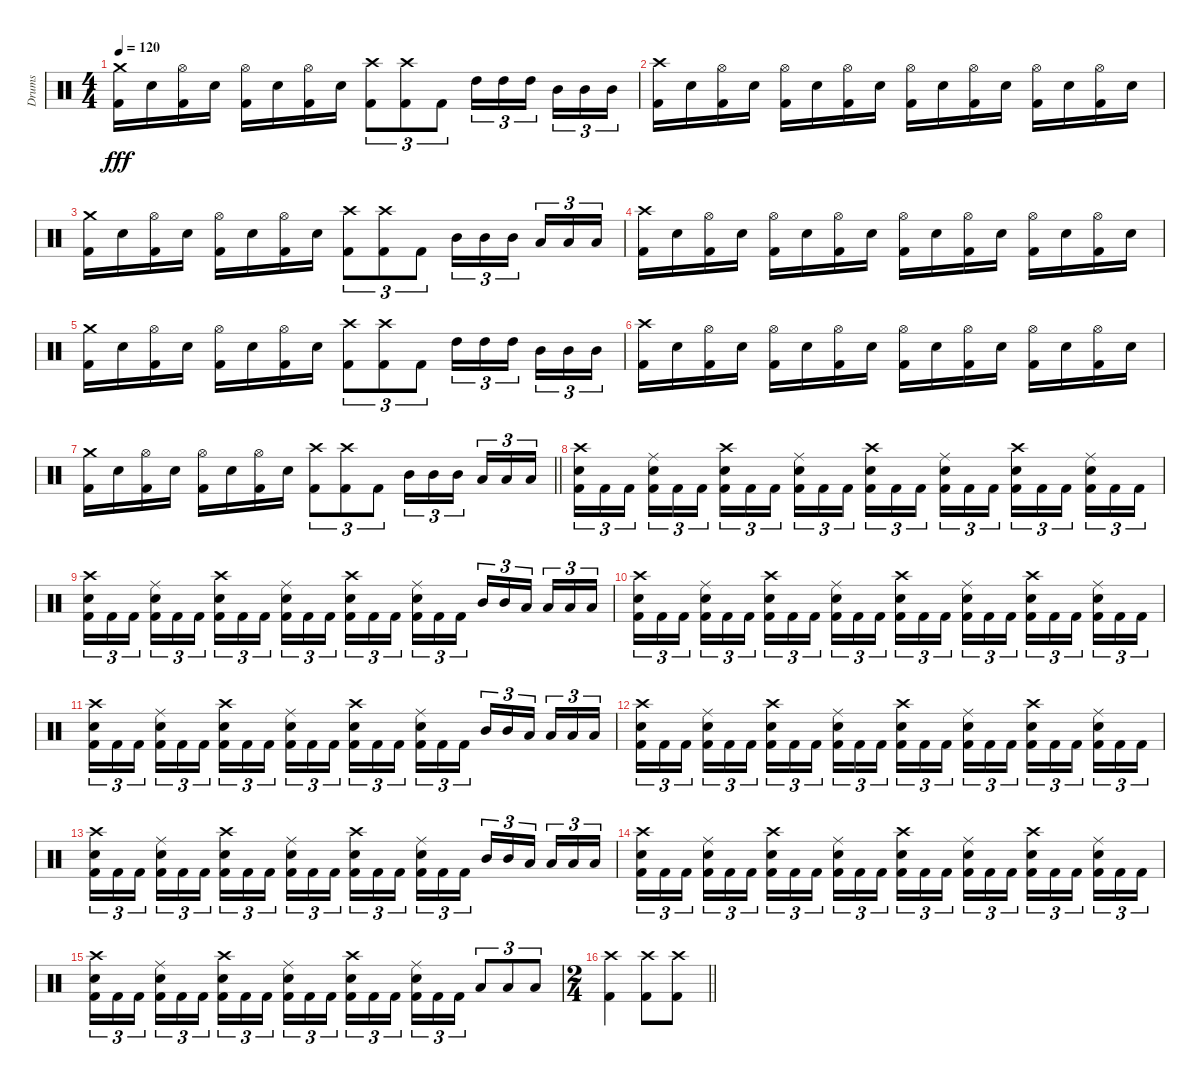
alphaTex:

\track ("Drums" "Drums") {instrument percussion}
\staff {score}
\articulation defaults
\ts (4 4)
\tempo 120
\clef neutral
\ks c
("Crash medium (hit)" "Kick (hit) 2").16{dy fff} "Snare (hit) 2".16 ("Hi-Hat (open)" "Kick (hit) 2").16 "Snare (hit) 2".16 ("Hi-Hat (open)" "Kick (hit) 2").16 "Snare (hit) 2".16 ("Hi-Hat (open)" "Kick (hit) 2").16 "Snare (hit) 2".16 ("Crash high (hit)" "Kick (hit) 2").8{tu (3 2)} ("Crash high (hit)" "Kick (hit) 2").8{tu (3 2)} "Kick (hit) 2".8{tu (3 2)} "High Tom (hit)".16{tu (3 2)} "High Tom (hit)".16{tu (3 2)} "High Tom (hit)".16{tu (3 2) beam splitsecondary} "Mid Tom (hit)".16{tu (3 2)} "Mid Tom (hit)".16{tu (3 2)} "Mid Tom (hit)".16{tu (3 2)} |
("Crash high (hit)" "Kick (hit) 2").16 "Snare (hit) 2".16 ("Hi-Hat (open)" "Kick (hit) 2").16 "Snare (hit) 2".16 ("Hi-Hat (open)" "Kick (hit) 2").16 "Snare (hit) 2".16 ("Hi-Hat (open)" "Kick (hit) 2").16 "Snare (hit) 2".16 ("Hi-Hat (open)" "Kick (hit) 2").16 "Snare (hit) 2".16 ("Hi-Hat (open)" "Kick (hit) 2").16 "Snare (hit) 2".16 ("Hi-Hat (open)" "Kick (hit) 2").16 "Snare (hit) 2".16 ("Hi-Hat (open)" "Kick (hit) 2").16 "Snare (hit) 2".16 |
("Crash medium (hit)" "Kick (hit) 2").16 "Snare (hit) 2".16 ("Hi-Hat (open)" "Kick (hit) 2").16 "Snare (hit) 2".16 ("Hi-Hat (open)" "Kick (hit) 2").16 "Snare (hit) 2".16 ("Hi-Hat (open)" "Kick (hit) 2").16 "Snare (hit) 2".16 ("Crash high (hit)" "Kick (hit) 2").8{tu (3 2)} ("Crash high (hit)" "Kick (hit) 2").8{tu (3 2)} "Kick (hit) 2".8{tu (3 2)} "Mid Tom (hit)".16{tu (3 2)} "Mid Tom (hit)".16{tu (3 2)} "Mid Tom (hit)".16{tu (3 2) beam splitsecondary} "Low Tom (hit)".16{tu (3 2)} "Low Tom (hit)".16{tu (3 2)} "Low Tom (hit)".16{tu (3 2)} |
("Crash high (hit)" "Kick (hit) 2").16 "Snare (hit) 2".16 ("Hi-Hat (open)" "Kick (hit) 2").16 "Snare (hit) 2".16 ("Hi-Hat (open)" "Kick (hit) 2").16 "Snare (hit) 2".16 ("Hi-Hat (open)" "Kick (hit) 2").16 "Snare (hit) 2".16 ("Hi-Hat (open)" "Kick (hit) 2").16 "Snare (hit) 2".16 ("Hi-Hat (open)" "Kick (hit) 2").16 "Snare (hit) 2".16 ("Hi-Hat (open)" "Kick (hit) 2").16 "Snare (hit) 2".16 ("Hi-Hat (open)" "Kick (hit) 2").16 "Snare (hit) 2".16 |
("Crash medium (hit)" "Kick (hit) 2").16 "Snare (hit) 2".16 ("Hi-Hat (open)" "Kick (hit) 2").16 "Snare (hit) 2".16 ("Hi-Hat (open)" "Kick (hit) 2").16 "Snare (hit) 2".16 ("Hi-Hat (open)" "Kick (hit) 2").16 "Snare (hit) 2".16 ("Crash high (hit)" "Kick (hit) 2").8{tu (3 2)} ("Crash high (hit)" "Kick (hit) 2").8{tu (3 2)} "Kick (hit) 2".8{tu (3 2)} "High Tom (hit)".16{tu (3 2)} "High Tom (hit)".16{tu (3 2)} "High Tom (hit)".16{tu (3 2) beam splitsecondary} "Mid Tom (hit)".16{tu (3 2)} "Mid Tom (hit)".16{tu (3 2)} "Mid Tom (hit)".16{tu (3 2)} |
("Crash high (hit)" "Kick (hit) 2").16 "Snare (hit) 2".16 ("Hi-Hat (open)" "Kick (hit) 2").16 "Snare (hit) 2".16 ("Hi-Hat (open)" "Kick (hit) 2").16 "Snare (hit) 2".16 ("Hi-Hat (open)" "Kick (hit) 2").16 "Snare (hit) 2".16 ("Hi-Hat (open)" "Kick (hit) 2").16 "Snare (hit) 2".16 ("Hi-Hat (open)" "Kick (hit) 2").16 "Snare (hit) 2".16 ("Hi-Hat (open)" "Kick (hit) 2").16 "Snare (hit) 2".16 ("Hi-Hat (open)" "Kick (hit) 2").16 "Snare (hit) 2".16 |
\barLineRight lightlight
("Crash medium (hit)" "Kick (hit) 2").16 "Snare (hit) 2".16 ("Hi-Hat (open)" "Kick (hit) 2").16 "Snare (hit) 2".16 ("Hi-Hat (open)" "Kick (hit) 2").16 "Snare (hit) 2".16 ("Hi-Hat (open)" "Kick (hit) 2").16 "Snare (hit) 2".16 ("Crash high (hit)" "Kick (hit) 2").8{tu (3 2)} ("Crash high (hit)" "Kick (hit) 2").8{tu (3 2)} "Kick (hit) 2".8{tu (3 2)} "Mid Tom (hit)".16{tu (3 2)} "Mid Tom (hit)".16{tu (3 2)} "Mid Tom (hit)".16{tu (3 2) beam splitsecondary} "Low Tom (hit)".16{tu (3 2)} "Low Tom (hit)".16{tu (3 2)} "Low Tom (hit)".16{tu (3 2)} |
("Crash high (hit)" "Snare (hit) 2" "Kick (hit) 2").16{tu (3 2)} "Kick (hit) 2".16{tu (3 2)} "Kick (hit) 2".16{tu (3 2) beam splitsecondary} ("Ride (middle)" "Snare (hit) 2" "Kick (hit) 2").16{tu (3 2)} "Kick (hit) 2".16{tu (3 2)} "Kick (hit) 2".16{tu (3 2)} ("Crash high (hit)" "Snare (hit) 2" "Kick (hit) 2").16{tu (3 2)} "Kick (hit) 2".16{tu (3 2)} "Kick (hit) 2".16{tu (3 2) beam splitsecondary} ("Ride (middle)" "Snare (hit) 2" "Kick (hit) 2").16{tu (3 2)} "Kick (hit) 2".16{tu (3 2)} "Kick (hit) 2".16{tu (3 2)} ("Crash high (hit)" "Snare (hit) 2" "Kick (hit) 2").16{tu (3 2)} "Kick (hit) 2".16{tu (3 2)} "Kick (hit) 2".16{tu (3 2) beam splitsecondary} ("Ride (middle)" "Snare (hit) 2" "Kick (hit) 2").16{tu (3 2)} "Kick (hit) 2".16{tu (3 2)} "Kick (hit) 2".16{tu (3 2)} ("Crash high (hit)" "Snare (hit) 2" "Kick (hit) 2").16{tu (3 2)} "Kick (hit) 2".16{tu (3 2)} "Kick (hit) 2".16{tu (3 2) beam splitsecondary} ("Ride (middle)" "Snare (hit) 2" "Kick (hit) 2").16{tu (3 2)} "Kick (hit) 2".16{tu (3 2)} "Kick (hit) 2".16{tu (3 2)} |
("Crash high (hit)" "Snare (hit) 2" "Kick (hit) 2").16{tu (3 2)} "Kick (hit) 2".16{tu (3 2)} "Kick (hit) 2".16{tu (3 2) beam splitsecondary} ("Ride (middle)" "Snare (hit) 2" "Kick (hit) 2").16{tu (3 2)} "Kick (hit) 2".16{tu (3 2)} "Kick (hit) 2".16{tu (3 2)} ("Crash high (hit)" "Snare (hit) 2" "Kick (hit) 2").16{tu (3 2)} "Kick (hit) 2".16{tu (3 2)} "Kick (hit) 2".16{tu (3 2) beam splitsecondary} ("Ride (middle)" "Snare (hit) 2" "Kick (hit) 2").16{tu (3 2)} "Kick (hit) 2".16{tu (3 2)} "Kick (hit) 2".16{tu (3 2)} ("Crash high (hit)" "Snare (hit) 2" "Kick (hit) 2").16{tu (3 2)} "Kick (hit) 2".16{tu (3 2)} "Kick (hit) 2".16{tu (3 2) beam splitsecondary} ("Ride (middle)" "Snare (hit) 2" "Kick (hit) 2").16{tu (3 2)} "Kick (hit) 2".16{tu (3 2)} "Kick (hit) 2".16{tu (3 2)} "Mid Tom (hit)".16{tu (3 2)} "Mid Tom (hit)".16{tu (3 2)} "Low Tom (hit)".16{tu (3 2) beam splitsecondary} "Low Tom (hit)".16{tu (3 2)} "Low Tom (hit)".16{tu (3 2)} "Low Tom (hit)".16{tu (3 2)} |
("Crash high (hit)" "Snare (hit) 2" "Kick (hit) 2").16{tu (3 2)} "Kick (hit) 2".16{tu (3 2)} "Kick (hit) 2".16{tu (3 2) beam splitsecondary} ("Ride (middle)" "Snare (hit) 2" "Kick (hit) 2").16{tu (3 2)} "Kick (hit) 2".16{tu (3 2)} "Kick (hit) 2".16{tu (3 2)} ("Crash high (hit)" "Snare (hit) 2" "Kick (hit) 2").16{tu (3 2)} "Kick (hit) 2".16{tu (3 2)} "Kick (hit) 2".16{tu (3 2) beam splitsecondary} ("Ride (middle)" "Snare (hit) 2" "Kick (hit) 2").16{tu (3 2)} "Kick (hit) 2".16{tu (3 2)} "Kick (hit) 2".16{tu (3 2)} ("Crash high (hit)" "Snare (hit) 2" "Kick (hit) 2").16{tu (3 2)} "Kick (hit) 2".16{tu (3 2)} "Kick (hit) 2".16{tu (3 2) beam splitsecondary} ("Ride (middle)" "Snare (hit) 2" "Kick (hit) 2").16{tu (3 2)} "Kick (hit) 2".16{tu (3 2)} "Kick (hit) 2".16{tu (3 2)} ("Crash high (hit)" "Snare (hit) 2" "Kick (hit) 2").16{tu (3 2)} "Kick (hit) 2".16{tu (3 2)} "Kick (hit) 2".16{tu (3 2) beam splitsecondary} ("Ride (middle)" "Snare (hit) 2" "Kick (hit) 2").16{tu (3 2)} "Kick (hit) 2".16{tu (3 2)} "Kick (hit) 2".16{tu (3 2)} |
("Crash high (hit)" "Snare (hit) 2" "Kick (hit) 2").16{tu (3 2)} "Kick (hit) 2".16{tu (3 2)} "Kick (hit) 2".16{tu (3 2) beam splitsecondary} ("Ride (middle)" "Snare (hit) 2" "Kick (hit) 2").16{tu (3 2)} "Kick (hit) 2".16{tu (3 2)} "Kick (hit) 2".16{tu (3 2)} ("Crash high (hit)" "Snare (hit) 2" "Kick (hit) 2").16{tu (3 2)} "Kick (hit) 2".16{tu (3 2)} "Kick (hit) 2".16{tu (3 2) beam splitsecondary} ("Ride (middle)" "Snare (hit) 2" "Kick (hit) 2").16{tu (3 2)} "Kick (hit) 2".16{tu (3 2)} "Kick (hit) 2".16{tu (3 2)} ("Crash high (hit)" "Snare (hit) 2" "Kick (hit) 2").16{tu (3 2)} "Kick (hit) 2".16{tu (3 2)} "Kick (hit) 2".16{tu (3 2) beam splitsecondary} ("Ride (middle)" "Snare (hit) 2" "Kick (hit) 2").16{tu (3 2)} "Kick (hit) 2".16{tu (3 2)} "Kick (hit) 2".16{tu (3 2)} "Mid Tom (hit)".16{tu (3 2)} "Mid Tom (hit)".16{tu (3 2)} "Low Tom (hit)".16{tu (3 2) beam splitsecondary} "Low Tom (hit)".16{tu (3 2)} "Low Tom (hit)".16{tu (3 2)} "Low Tom (hit)".16{tu (3 2)} |
("Crash high (hit)" "Snare (hit) 2" "Kick (hit) 2").16{tu (3 2)} "Kick (hit) 2".16{tu (3 2)} "Kick (hit) 2".16{tu (3 2) beam splitsecondary} ("Ride (middle)" "Snare (hit) 2" "Kick (hit) 2").16{tu (3 2)} "Kick (hit) 2".16{tu (3 2)} "Kick (hit) 2".16{tu (3 2)} ("Crash high (hit)" "Snare (hit) 2" "Kick (hit) 2").16{tu (3 2)} "Kick (hit) 2".16{tu (3 2)} "Kick (hit) 2".16{tu (3 2) beam splitsecondary} ("Ride (middle)" "Snare (hit) 2" "Kick (hit) 2").16{tu (3 2)} "Kick (hit) 2".16{tu (3 2)} "Kick (hit) 2".16{tu (3 2)} ("Crash high (hit)" "Snare (hit) 2" "Kick (hit) 2").16{tu (3 2)} "Kick (hit) 2".16{tu (3 2)} "Kick (hit) 2".16{tu (3 2) beam splitsecondary} ("Ride (middle)" "Snare (hit) 2" "Kick (hit) 2").16{tu (3 2)} "Kick (hit) 2".16{tu (3 2)} "Kick (hit) 2".16{tu (3 2)} ("Crash high (hit)" "Snare (hit) 2" "Kick (hit) 2").16{tu (3 2)} "Kick (hit) 2".16{tu (3 2)} "Kick (hit) 2".16{tu (3 2) beam splitsecondary} ("Ride (middle)" "Snare (hit) 2" "Kick (hit) 2").16{tu (3 2)} "Kick (hit) 2".16{tu (3 2)} "Kick (hit) 2".16{tu (3 2)} |
("Crash high (hit)" "Snare (hit) 2" "Kick (hit) 2").16{tu (3 2)} "Kick (hit) 2".16{tu (3 2)} "Kick (hit) 2".16{tu (3 2) beam splitsecondary} ("Ride (middle)" "Snare (hit) 2" "Kick (hit) 2").16{tu (3 2)} "Kick (hit) 2".16{tu (3 2)} "Kick (hit) 2".16{tu (3 2)} ("Crash high (hit)" "Snare (hit) 2" "Kick (hit) 2").16{tu (3 2)} "Kick (hit) 2".16{tu (3 2)} "Kick (hit) 2".16{tu (3 2) beam splitsecondary} ("Ride (middle)" "Snare (hit) 2" "Kick (hit) 2").16{tu (3 2)} "Kick (hit) 2".16{tu (3 2)} "Kick (hit) 2".16{tu (3 2)} ("Crash high (hit)" "Snare (hit) 2" "Kick (hit) 2").16{tu (3 2)} "Kick (hit) 2".16{tu (3 2)} "Kick (hit) 2".16{tu (3 2) beam splitsecondary} ("Ride (middle)" "Snare (hit) 2" "Kick (hit) 2").16{tu (3 2)} "Kick (hit) 2".16{tu (3 2)} "Kick (hit) 2".16{tu (3 2)} "Mid Tom (hit)".16{tu (3 2)} "Mid Tom (hit)".16{tu (3 2)} "Low Tom (hit)".16{tu (3 2) beam splitsecondary} "Low Tom (hit)".16{tu (3 2)} "Low Tom (hit)".16{tu (3 2)} "Low Tom (hit)".16{tu (3 2)} |
("Crash high (hit)" "Snare (hit) 2" "Kick (hit) 2").16{tu (3 2)} "Kick (hit) 2".16{tu (3 2)} "Kick (hit) 2".16{tu (3 2) beam splitsecondary} ("Ride (middle)" "Snare (hit) 2" "Kick (hit) 2").16{tu (3 2)} "Kick (hit) 2".16{tu (3 2)} "Kick (hit) 2".16{tu (3 2)} ("Crash high (hit)" "Snare (hit) 2" "Kick (hit) 2").16{tu (3 2)} "Kick (hit) 2".16{tu (3 2)} "Kick (hit) 2".16{tu (3 2) beam splitsecondary} ("Ride (middle)" "Snare (hit) 2" "Kick (hit) 2").16{tu (3 2)} "Kick (hit) 2".16{tu (3 2)} "Kick (hit) 2".16{tu (3 2)} ("Crash high (hit)" "Snare (hit) 2" "Kick (hit) 2").16{tu (3 2)} "Kick (hit) 2".16{tu (3 2)} "Kick (hit) 2".16{tu (3 2) beam splitsecondary} ("Ride (middle)" "Snare (hit) 2" "Kick (hit) 2").16{tu (3 2)} "Kick (hit) 2".16{tu (3 2)} "Kick (hit) 2".16{tu (3 2)} ("Crash high (hit)" "Snare (hit) 2" "Kick (hit) 2").16{tu (3 2)} "Kick (hit) 2".16{tu (3 2)} "Kick (hit) 2".16{tu (3 2) beam splitsecondary} ("Ride (middle)" "Snare (hit) 2" "Kick (hit) 2").16{tu (3 2)} "Kick (hit) 2".16{tu (3 2)} "Kick (hit) 2".16{tu (3 2)} |
("Crash high (hit)" "Snare (hit) 2" "Kick (hit) 2").16{tu (3 2)} "Kick (hit) 2".16{tu (3 2)} "Kick (hit) 2".16{tu (3 2) beam splitsecondary} ("Ride (middle)" "Snare (hit) 2" "Kick (hit) 2").16{tu (3 2)} "Kick (hit) 2".16{tu (3 2)} "Kick (hit) 2".16{tu (3 2)} ("Crash high (hit)" "Snare (hit) 2" "Kick (hit) 2").16{tu (3 2)} "Kick (hit) 2".16{tu (3 2)} "Kick (hit) 2".16{tu (3 2) beam splitsecondary} ("Ride (middle)" "Snare (hit) 2" "Kick (hit) 2").16{tu (3 2)} "Kick (hit) 2".16{tu (3 2)} "Kick (hit) 2".16{tu (3 2)} ("Crash high (hit)" "Snare (hit) 2" "Kick (hit) 2").16{tu (3 2)} "Kick (hit) 2".16{tu (3 2)} "Kick (hit) 2".16{tu (3 2) beam splitsecondary} ("Ride (middle)" "Snare (hit) 2" "Kick (hit) 2").16{tu (3 2)} "Kick (hit) 2".16{tu (3 2)} "Kick (hit) 2".16{tu (3 2)} "Low Tom (hit)".8{tu (3 2)} "Low Tom (hit)".8{tu (3 2)} "Low Tom (hit)".8{tu (3 2)} |
\ts (2 4)
\barLineRight lightlight
("Crash high (hit)" "Kick (hit) 2").4 ("Crash high (hit)" "Kick (hit) 2").8 ("Crash high (hit)" "Kick (hit) 2").8
